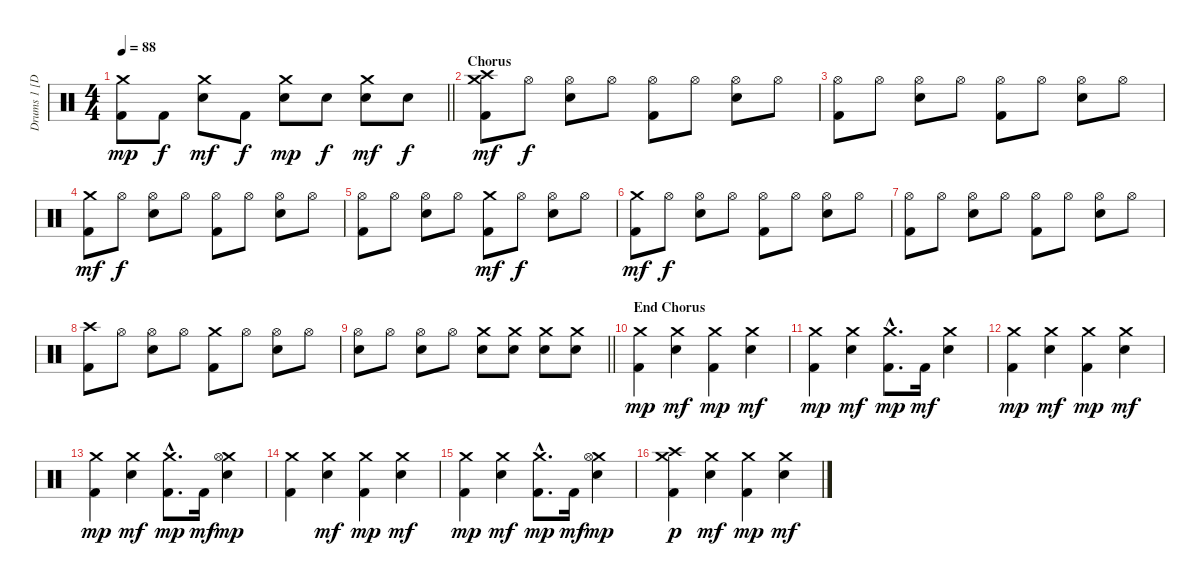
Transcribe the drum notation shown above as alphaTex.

\track ("Drums 1 [Doom]" "Drums 1 [D") {instrument percussion}
\staff {score}
\articulation defaults
\ts (4 4)
\tempo 88
\clef neutral
\barLineRight lightlight
\ks c
("Crash medium (hit)" "Kick (hit) 2").8{dy mp} "Kick (hit) 2".8{dy f} ("Crash medium (hit)" "Electric Snare (hit)").8{dy mf} "Kick (hit) 2".8{dy f} ("Crash medium (hit)" "Electric Snare (hit)").8{dy mp} "Electric Snare (hit)".8{dy f} ("Crash medium (hit)" "Electric Snare (hit)").8{dy mf} "Electric Snare (hit)".8{dy f} |
\section ("" "Chorus")
("Crash medium (hit)" "Crash high (hit)" "Kick (hit) 2").8{dy mf} "Hi-Hat (open)".8{dy f} ("Hi-Hat (open)" "Electric Snare (hit)").8 "Hi-Hat (open)".8 ("Hi-Hat (open)" "Kick (hit) 2").8 "Hi-Hat (open)".8 ("Hi-Hat (open)" "Electric Snare (hit)").8 "Hi-Hat (open)".8 |
("Hi-Hat (open)" "Kick (hit) 2").8 "Hi-Hat (open)".8 ("Hi-Hat (open)" "Electric Snare (hit)").8 "Hi-Hat (open)".8 ("Hi-Hat (open)" "Kick (hit) 2").8 "Hi-Hat (open)".8 ("Hi-Hat (open)" "Electric Snare (hit)").8 "Hi-Hat (open)".8 |
("Crash medium (hit)" "Kick (hit) 2").8{dy mf} "Hi-Hat (open)".8{dy f} ("Hi-Hat (open)" "Electric Snare (hit)").8 "Hi-Hat (open)".8 ("Hi-Hat (open)" "Kick (hit) 2").8 "Hi-Hat (open)".8 ("Hi-Hat (open)" "Electric Snare (hit)").8 "Hi-Hat (open)".8 |
("Hi-Hat (open)" "Kick (hit) 2").8 "Hi-Hat (open)".8 ("Hi-Hat (open)" "Electric Snare (hit)").8 "Hi-Hat (open)".8 ("Crash medium (hit)" "Kick (hit) 2").8{dy mf} "Hi-Hat (open)".8{dy f} ("Hi-Hat (open)" "Electric Snare (hit)").8 "Hi-Hat (open)".8 |
("Crash medium (hit)" "Kick (hit) 2").8{dy mf} "Hi-Hat (open)".8{dy f} ("Hi-Hat (open)" "Electric Snare (hit)").8 "Hi-Hat (open)".8 ("Hi-Hat (open)" "Kick (hit) 2").8 "Hi-Hat (open)".8 ("Hi-Hat (open)" "Electric Snare (hit)").8 "Hi-Hat (open)".8 |
("Hi-Hat (open)" "Kick (hit) 2").8 "Hi-Hat (open)".8 ("Hi-Hat (open)" "Electric Snare (hit)").8 "Hi-Hat (open)".8 ("Hi-Hat (open)" "Kick (hit) 2").8 "Hi-Hat (open)".8 ("Hi-Hat (open)" "Electric Snare (hit)").8 "Hi-Hat (open)".8 |
("Crash high (hit)" "Kick (hit) 2").8 "Hi-Hat (open)".8 ("Hi-Hat (open)" "Electric Snare (hit)").8 "Hi-Hat (open)".8 ("Crash medium (hit)" "Kick (hit) 2").8 "Hi-Hat (open)".8 ("Hi-Hat (open)" "Electric Snare (hit)").8 "Hi-Hat (open)".8 |
\barLineRight lightlight
("Hi-Hat (open)" "Electric Snare (hit)").8 "Hi-Hat (open)".8 ("Hi-Hat (open)" "Electric Snare (hit)").8 "Hi-Hat (open)".8 ("Crash medium (hit)" "Electric Snare (hit)").8 ("Crash medium (hit)" "Electric Snare (hit)").8 ("Crash medium (hit)" "Electric Snare (hit)").8 ("Crash medium (hit)" "Electric Snare (hit)").8 |
\section ("" "End Chorus")
("Crash medium (hit)" "Kick (hit) 2").4{dy mp} ("Crash medium (hit)" "Electric Snare (hit)").4{dy mf} ("Crash medium (hit)" "Kick (hit) 2").4{dy mp} ("Crash medium (hit)" "Electric Snare (hit)").4{dy mf} |
("Crash medium (hit)" "Kick (hit) 2").4{dy mp} ("Crash medium (hit)" "Electric Snare (hit)").4{dy mf} ("Crash medium (hit)"{hac} "Kick (hit) 2"{hac}).8{d dy mp} "Kick (hit) 2".16{dy mf} ("Crash medium (hit)" "Electric Snare (hit)").4 |
("Crash medium (hit)" "Kick (hit) 2").4{dy mp} ("Crash medium (hit)" "Electric Snare (hit)").4{dy mf} ("Crash medium (hit)" "Kick (hit) 2").4{dy mp} ("Crash medium (hit)" "Electric Snare (hit)").4{dy mf} |
("Crash medium (hit)" "Kick (hit) 2").4{dy mp} ("Crash medium (hit)" "Electric Snare (hit)").4{dy mf} ("Crash medium (hit)"{hac} "Kick (hit) 2"{hac}).8{d dy mp} "Kick (hit) 2".16{dy mf} ("Crash medium (hit)" "Hi-Hat (open)" "Electric Snare (hit)").4{dy mp} |
("Crash medium (hit)" "Kick (hit) 2").4 ("Crash medium (hit)" "Electric Snare (hit)").4{dy mf} ("Crash medium (hit)" "Kick (hit) 2").4{dy mp} ("Crash medium (hit)" "Electric Snare (hit)").4{dy mf} |
("Crash medium (hit)" "Kick (hit) 2").4{dy mp} ("Crash medium (hit)" "Electric Snare (hit)").4{dy mf} ("Crash medium (hit)"{hac} "Kick (hit) 2"{hac}).8{d dy mp} "Kick (hit) 2".16{dy mf} ("Crash medium (hit)" "Hi-Hat (open)" "Electric Snare (hit)").4{dy mp} |
("Crash medium (hit)" "Crash high (hit)" "Kick (hit) 2").4{dy p} ("Crash medium (hit)" "Electric Snare (hit)").4{dy mf} ("Crash medium (hit)" "Kick (hit) 2").4{dy mp} ("Crash medium (hit)" "Electric Snare (hit)").4{dy mf}
